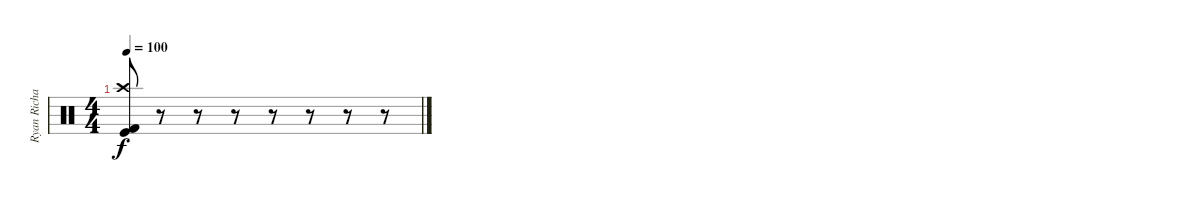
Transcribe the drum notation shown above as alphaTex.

\track ("Ryan Richards" "Ryan Richa") {instrument percussion}
\staff {score}
\articulation defaults
\ts (4 4)
\tempo 100
\clef neutral
\ks c
("Kick (hit)" "Crash high (hit)" "Kick (hit) 2").8{dy f} r.8 r.8 r.8 r.8 r.8 r.8 r.8
